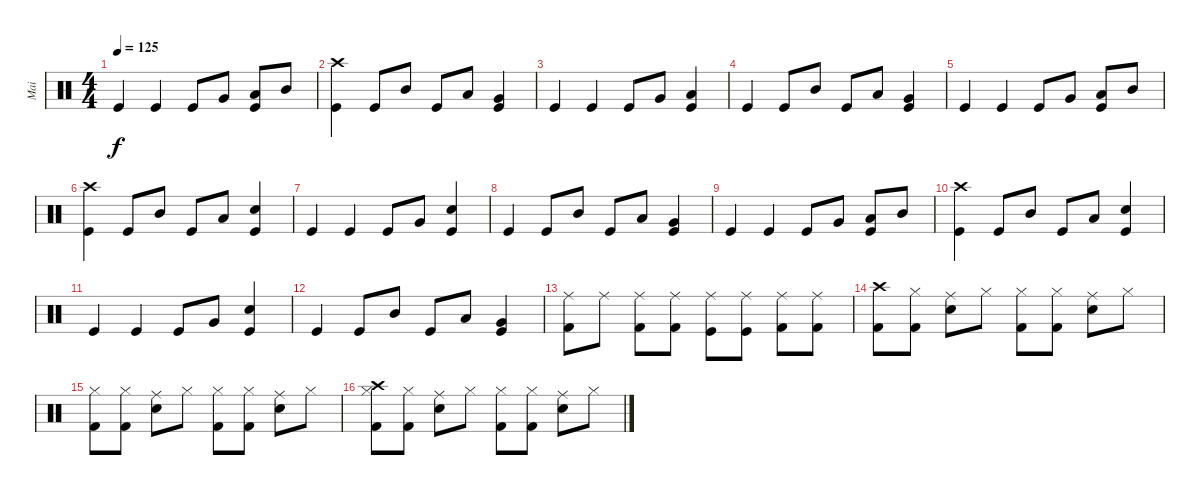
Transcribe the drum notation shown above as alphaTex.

\track ("Mai" "Mai") {instrument percussion}
\staff {score}
\articulation defaults
\ts (4 4)
\tempo 125
\clef neutral
\ks c "Kick (hit)".4{dy f} "Kick (hit)".4 "Kick (hit)".8 "Very Low Tom (hit)".8
("Kick (hit)" "Low Tom (hit)").8 "Mid Tom (hit)".8 |
("Kick (hit)" "Crash high (hit)").4 "Kick (hit)".8 "Mid Tom (hit)".8 "Kick (hit)".8 "Low Tom (hit)".8 ("Kick (hit)" "Very Low Tom (hit)").4 |
"Kick (hit)".4 "Kick (hit)".4 "Kick (hit)".8 "Very Low Tom (hit)".8 ("Kick (hit)" "Low Tom (hit)").4 |
"Kick (hit)".4 "Kick (hit)".8 "Mid Tom (hit)".8 "Kick (hit)".8 "Low Tom (hit)".8 ("Kick (hit)" "Very Low Tom (hit)").4 |
"Kick (hit)".4 "Kick (hit)".4 "Kick (hit)".8 "Very Low Tom (hit)".8 ("Kick (hit)" "Low Tom (hit)").8 "Mid Tom (hit)".8 |
("Kick (hit)" "Crash high (hit)").4 "Kick (hit)".8 "Mid Tom (hit)".8 "Kick (hit)".8 "Low Tom (hit)".8 ("Kick (hit)" "Snare (hit) 2").4 |
"Kick (hit)".4 "Kick (hit)".4 "Kick (hit)".8 "Very Low Tom (hit)".8 ("Kick (hit)" "Electric Snare (hit)").4 |
"Kick (hit)".4 "Kick (hit)".8 "Mid Tom (hit)".8 "Kick (hit)".8 "Low Tom (hit)".8 ("Kick (hit)" "Very Low Tom (hit)").4 |
"Kick (hit)".4 "Kick (hit)".4 "Kick (hit)".8 "Very Low Tom (hit)".8 ("Kick (hit)" "Low Tom (hit)").8 "Mid Tom (hit)".8 |
("Kick (hit)" "Crash high (hit)").4 "Kick (hit)".8 "Mid Tom (hit)".8 "Kick (hit)".8 "Low Tom (hit)".8 ("Kick (hit)" "Snare (hit) 2").4 |
"Kick (hit)".4 "Kick (hit)".4 "Kick (hit)".8 "Very Low Tom (hit)".8 ("Kick (hit)" "Electric Snare (hit)").4 |
"Kick (hit)".4 "Kick (hit)".8 "Mid Tom (hit)".8 "Kick (hit)".8 "Low Tom (hit)".8 ("Kick (hit)" "Very Low Tom (hit)").4 |
("Ride (middle)" "Kick (hit) 2").8 "Ride (middle)".8 ("Ride (middle)" "Kick (hit) 2").8 ("Kick (hit) 2" "Ride (middle)").8 ("Ride (middle)" "Kick (hit)").8 ("Ride (middle)" "Kick (hit)").8 ("Ride (middle)" "Kick (hit) 2").8 ("Ride (middle)" "Kick (hit) 2").8 |
("Crash high (hit)" "Kick (hit) 2").8 ("Hi-Hat (closed)" "Kick (hit) 2").8 ("Ride (middle)" "Snare (hit) 2").8 "Hi-Hat (closed)".8 ("Hi-Hat (closed)" "Kick (hit) 2").8 ("Hi-Hat (closed)" "Kick (hit) 2").8 ("Ride (middle)" "Snare (hit) 2").8 "Hi-Hat (closed)".8 |
("Hi-Hat (closed)" "Kick (hit) 2").8 ("Hi-Hat (closed)" "Kick (hit) 2").8 ("Ride (middle)" "Snare (hit) 2").8 "Hi-Hat (closed)".8 ("Hi-Hat (closed)" "Kick (hit) 2").8 ("Hi-Hat (closed)" "Kick (hit) 2").8 ("Ride (middle)" "Snare (hit) 2").8 "Hi-Hat (closed)".8 |
("Crash high (hit)" "Hi-Hat (closed)" "Kick (hit) 2").8 ("Hi-Hat (closed)" "Kick (hit) 2").8 ("Ride (middle)" "Snare (hit) 2").8 "Hi-Hat (closed)".8 ("Hi-Hat (closed)" "Kick (hit) 2").8 ("Hi-Hat (closed)" "Kick (hit) 2").8 ("Ride (middle)" "Snare (hit) 2").8 "Hi-Hat (closed)".8
